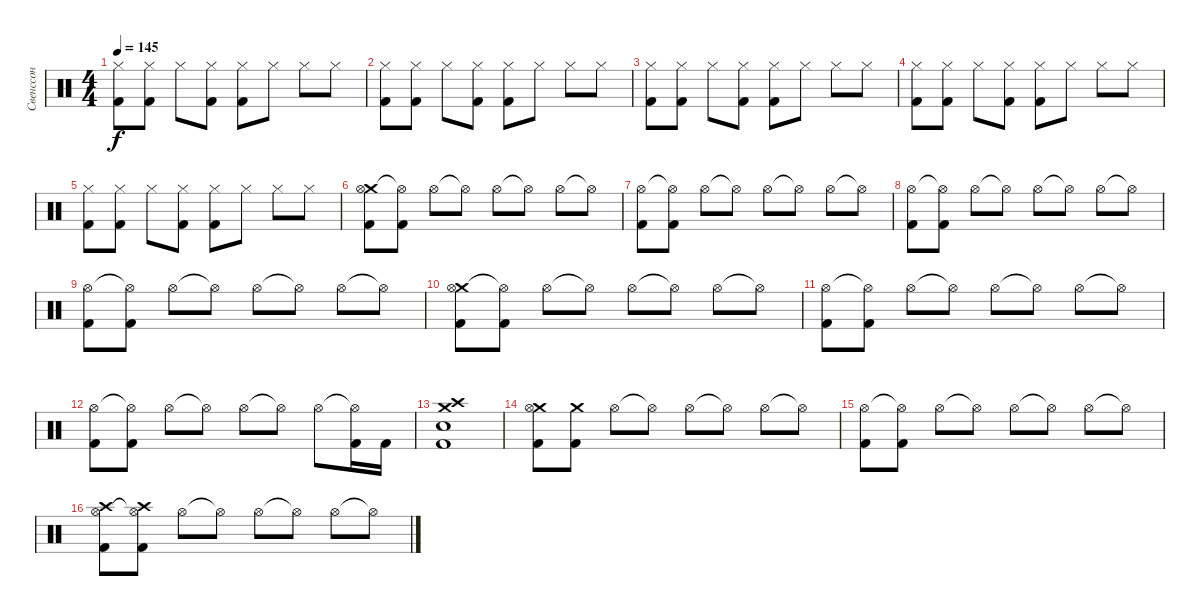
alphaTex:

\track ("Свенссон" "Свенссон") {instrument percussion}
\staff {score}
\articulation defaults
\ts (4 4)
\tempo 145
\clef neutral
\ks c
("Hi-Hat (closed)" "Kick (hit) 2").8{dy f} ("Hi-Hat (closed)" "Kick (hit) 2").8 "Hi-Hat (closed)".8 ("Hi-Hat (closed)" "Kick (hit) 2").8 ("Hi-Hat (closed)" "Kick (hit) 2").8 "Hi-Hat (closed)".8 "Hi-Hat (closed)".8 "Hi-Hat (closed)".8 |
("Hi-Hat (closed)" "Kick (hit) 2").8 ("Hi-Hat (closed)" "Kick (hit) 2").8 "Hi-Hat (closed)".8 ("Hi-Hat (closed)" "Kick (hit) 2").8 ("Hi-Hat (closed)" "Kick (hit) 2").8 "Hi-Hat (closed)".8 "Hi-Hat (closed)".8 "Hi-Hat (closed)".8 |
("Hi-Hat (closed)" "Kick (hit) 2").8 ("Hi-Hat (closed)" "Kick (hit) 2").8 "Hi-Hat (closed)".8 ("Hi-Hat (closed)" "Kick (hit) 2").8 ("Hi-Hat (closed)" "Kick (hit) 2").8 "Hi-Hat (closed)".8 "Hi-Hat (closed)".8 "Hi-Hat (closed)".8 |
("Hi-Hat (closed)" "Kick (hit) 2").8 ("Hi-Hat (closed)" "Kick (hit) 2").8 "Hi-Hat (closed)".8 ("Hi-Hat (closed)" "Kick (hit) 2").8 ("Hi-Hat (closed)" "Kick (hit) 2").8 "Hi-Hat (closed)".8 "Hi-Hat (closed)".8 "Hi-Hat (closed)".8 |
("Hi-Hat (closed)" "Kick (hit) 2").8 ("Hi-Hat (closed)" "Kick (hit) 2").8 "Hi-Hat (closed)".8 ("Hi-Hat (closed)" "Kick (hit) 2").8 ("Hi-Hat (closed)" "Kick (hit) 2").8 "Hi-Hat (closed)".8 "Hi-Hat (closed)".8 "Hi-Hat (closed)".8 |
("Crash medium (hit)" "Hi-Hat (open)" "Kick (hit) 2").8 ("Hi-Hat (open)"{t} "Kick (hit) 2").8 "Hi-Hat (open)".8 "Hi-Hat (open)"{t}.8 "Hi-Hat (open)".8 "Hi-Hat (open)"{t}.8 "Hi-Hat (open)".8 "Hi-Hat (open)"{t}.8 |
("Hi-Hat (open)" "Kick (hit) 2").8 ("Hi-Hat (open)"{t} "Kick (hit) 2").8 "Hi-Hat (open)".8 "Hi-Hat (open)"{t}.8 "Hi-Hat (open)".8 "Hi-Hat (open)"{t}.8 "Hi-Hat (open)".8 "Hi-Hat (open)"{t}.8 |
("Hi-Hat (open)" "Kick (hit) 2").8 ("Hi-Hat (open)"{t} "Kick (hit) 2").8 "Hi-Hat (open)".8 "Hi-Hat (open)"{t}.8 "Hi-Hat (open)".8 "Hi-Hat (open)"{t}.8 "Hi-Hat (open)".8 "Hi-Hat (open)"{t}.8 |
("Hi-Hat (open)" "Kick (hit) 2").8 ("Hi-Hat (open)"{t} "Kick (hit) 2").8 "Hi-Hat (open)".8 "Hi-Hat (open)"{t}.8 "Hi-Hat (open)".8 "Hi-Hat (open)"{t}.8 "Hi-Hat (open)".8 "Hi-Hat (open)"{t}.8 |
("Crash medium (hit)" "Hi-Hat (open)" "Kick (hit) 2").8 ("Hi-Hat (open)"{t} "Kick (hit) 2").8 "Hi-Hat (open)".8 "Hi-Hat (open)"{t}.8 "Hi-Hat (open)".8 "Hi-Hat (open)"{t}.8 "Hi-Hat (open)".8 "Hi-Hat (open)"{t}.8 |
("Hi-Hat (open)" "Kick (hit) 2").8 ("Hi-Hat (open)"{t} "Kick (hit) 2").8 "Hi-Hat (open)".8 "Hi-Hat (open)"{t}.8 "Hi-Hat (open)".8 "Hi-Hat (open)"{t}.8 "Hi-Hat (open)".8 "Hi-Hat (open)"{t}.8 |
("Hi-Hat (open)" "Kick (hit) 2").8 ("Hi-Hat (open)"{t} "Kick (hit) 2").8 "Hi-Hat (open)".8 "Hi-Hat (open)"{t}.8 "Hi-Hat (open)".8 "Hi-Hat (open)"{t}.8 "Hi-Hat (open)".8 ("Hi-Hat (open)"{t} "Kick (hit) 2").16 "Kick (hit) 2".16 |
("Crash medium (hit)" "Crash high (hit)" "Snare (hit) 2" "Kick (hit) 2").1 |
("Crash medium (hit)" "Hi-Hat (open)" "Kick (hit) 2").8 ("Crash medium (hit)" "Kick (hit) 2").8 "Hi-Hat (open)".8 "Hi-Hat (open)"{t}.8 "Hi-Hat (open)".8 "Hi-Hat (open)"{t}.8 "Hi-Hat (open)".8 "Hi-Hat (open)"{t}.8 |
("Hi-Hat (open)" "Kick (hit) 2").8 ("Hi-Hat (open)"{t} "Kick (hit) 2").8 "Hi-Hat (open)".8 "Hi-Hat (open)"{t}.8 "Hi-Hat (open)".8 "Hi-Hat (open)"{t}.8 "Hi-Hat (open)".8 "Hi-Hat (open)"{t}.8 |
("Crash high (hit)" "Hi-Hat (open)" "Kick (hit) 2").8 ("Crash high (hit)" "Hi-Hat (open)"{t} "Kick (hit) 2").8 "Hi-Hat (open)".8 "Hi-Hat (open)"{t}.8 "Hi-Hat (open)".8 "Hi-Hat (open)"{t}.8 "Hi-Hat (open)".8 "Hi-Hat (open)"{t}.8
